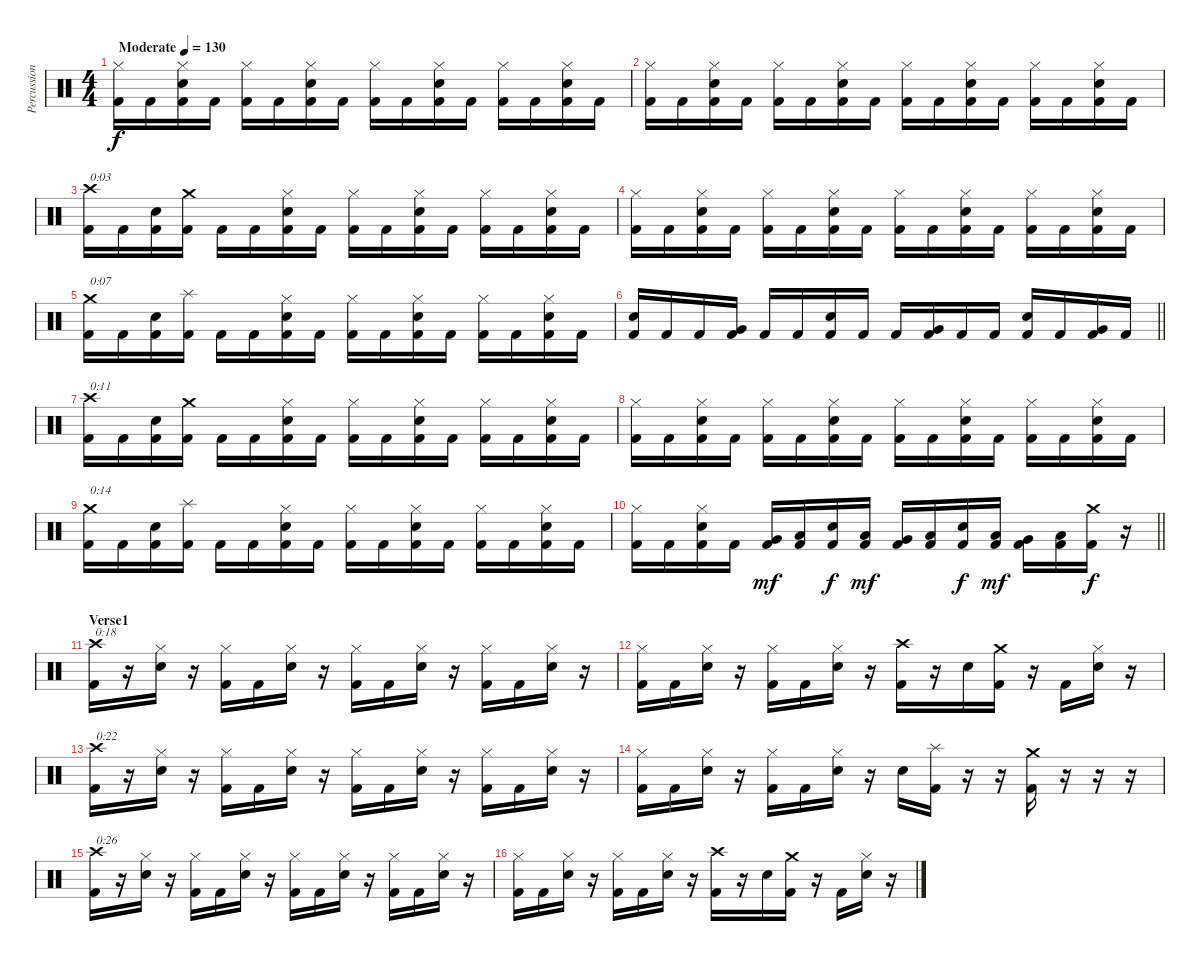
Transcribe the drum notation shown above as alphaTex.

\track ("Percussion" "Percussion") {instrument percussion}
\staff {score}
\articulation defaults
\ts (4 4)
\tempo (130 "Moderate")
\clef neutral
\ks c
("Hi-Hat (closed)" "Kick (hit) 2").16{dy f} "Kick (hit) 2".16 ("Hi-Hat (closed)" "Electric Snare (hit)" "Kick (hit) 2").16 "Kick (hit) 2".16 ("Hi-Hat (closed)" "Kick (hit) 2").16 "Kick (hit) 2".16 ("Hi-Hat (closed)" "Electric Snare (hit)" "Kick (hit) 2").16 "Kick (hit) 2".16 ("Hi-Hat (closed)" "Kick (hit) 2").16 "Kick (hit) 2".16 ("Hi-Hat (closed)" "Electric Snare (hit)" "Kick (hit) 2").16 "Kick (hit) 2".16 ("Hi-Hat (closed)" "Kick (hit) 2").16 "Kick (hit) 2".16 ("Hi-Hat (closed)" "Electric Snare (hit)" "Kick (hit) 2").16 "Kick (hit) 2".16 |
("Hi-Hat (closed)" "Kick (hit) 2").16 "Kick (hit) 2".16 ("Hi-Hat (closed)" "Electric Snare (hit)" "Kick (hit) 2").16 "Kick (hit) 2".16 ("Hi-Hat (closed)" "Kick (hit) 2").16 "Kick (hit) 2".16 ("Hi-Hat (closed)" "Electric Snare (hit)" "Kick (hit) 2").16 "Kick (hit) 2".16 ("Hi-Hat (closed)" "Kick (hit) 2").16 "Kick (hit) 2".16 ("Hi-Hat (closed)" "Electric Snare (hit)" "Kick (hit) 2").16 "Kick (hit) 2".16 ("Hi-Hat (closed)" "Kick (hit) 2").16 "Kick (hit) 2".16 ("Hi-Hat (closed)" "Electric Snare (hit)" "Kick (hit) 2").16 "Kick (hit) 2".16 |
("Crash high (hit)" "Kick (hit) 2").16{txt "0:03"} "Kick (hit) 2".16 ("Electric Snare (hit)" "Kick (hit) 2").16 ("Crash medium (hit)" "Kick (hit) 2").16 "Kick (hit) 2".16 "Kick (hit) 2".16 ("Hi-Hat (closed)" "Electric Snare (hit)" "Kick (hit) 2").16 "Kick (hit) 2".16 ("Hi-Hat (closed)" "Kick (hit) 2").16 "Kick (hit) 2".16 ("Hi-Hat (closed)" "Electric Snare (hit)" "Kick (hit) 2").16 "Kick (hit) 2".16 ("Hi-Hat (closed)" "Kick (hit) 2").16 "Kick (hit) 2".16 ("Hi-Hat (closed)" "Electric Snare (hit)" "Kick (hit) 2").16 "Kick (hit) 2".16 |
("Hi-Hat (closed)" "Kick (hit) 2").16 "Kick (hit) 2".16 ("Hi-Hat (closed)" "Electric Snare (hit)" "Kick (hit) 2").16 "Kick (hit) 2".16 ("Hi-Hat (closed)" "Kick (hit) 2").16 "Kick (hit) 2".16 ("Hi-Hat (closed)" "Electric Snare (hit)" "Kick (hit) 2").16 "Kick (hit) 2".16 ("Hi-Hat (closed)" "Kick (hit) 2").16 "Kick (hit) 2".16 ("Hi-Hat (closed)" "Electric Snare (hit)" "Kick (hit) 2").16 "Kick (hit) 2".16 ("Hi-Hat (closed)" "Kick (hit) 2").16 "Kick (hit) 2".16 ("Hi-Hat (closed)" "Electric Snare (hit)" "Kick (hit) 2").16 "Kick (hit) 2".16 |
("Crash medium (hit)" "Kick (hit) 2").16{txt "0:07"} "Kick (hit) 2".16 ("Electric Snare (hit)" "Kick (hit) 2").16 ("Splash (hit)" "Kick (hit) 2").16 "Kick (hit) 2".16 "Kick (hit) 2".16 ("Hi-Hat (closed)" "Electric Snare (hit)" "Kick (hit) 2").16 "Kick (hit) 2".16 ("Hi-Hat (closed)" "Kick (hit) 2").16 "Kick (hit) 2".16 ("Hi-Hat (closed)" "Electric Snare (hit)" "Kick (hit) 2").16 "Kick (hit) 2".16 ("Hi-Hat (closed)" "Kick (hit) 2").16 "Kick (hit) 2".16 ("Hi-Hat (closed)" "Electric Snare (hit)" "Kick (hit) 2").16 "Kick (hit) 2".16 |
\barLineRight lightlight
("Electric Snare (hit)" "Kick (hit) 2").16 "Kick (hit) 2".16 "Kick (hit) 2".16 ("Very Low Tom (hit)" "Kick (hit) 2").16 "Kick (hit) 2".16 "Kick (hit) 2".16 ("Electric Snare (hit)" "Kick (hit) 2").16 "Kick (hit) 2".16 "Kick (hit) 2".16 ("Very Low Tom (hit)" "Kick (hit) 2").16 "Kick (hit) 2".16 "Kick (hit) 2".16 ("Electric Snare (hit)" "Kick (hit) 2").16 "Kick (hit) 2".16 ("Very Low Tom (hit)" "Kick (hit) 2").16 "Kick (hit) 2".16 |
("Crash high (hit)" "Kick (hit) 2").16{txt "0:11"} "Kick (hit) 2".16 ("Electric Snare (hit)" "Kick (hit) 2").16 ("Crash medium (hit)" "Kick (hit) 2").16 "Kick (hit) 2".16 "Kick (hit) 2".16 ("Hi-Hat (closed)" "Electric Snare (hit)" "Kick (hit) 2").16 "Kick (hit) 2".16 ("Hi-Hat (closed)" "Kick (hit) 2").16 "Kick (hit) 2".16 ("Hi-Hat (closed)" "Electric Snare (hit)" "Kick (hit) 2").16 "Kick (hit) 2".16 ("Hi-Hat (closed)" "Kick (hit) 2").16 "Kick (hit) 2".16 ("Hi-Hat (closed)" "Electric Snare (hit)" "Kick (hit) 2").16 "Kick (hit) 2".16 |
("Hi-Hat (closed)" "Kick (hit) 2").16 "Kick (hit) 2".16 ("Hi-Hat (closed)" "Electric Snare (hit)" "Kick (hit) 2").16 "Kick (hit) 2".16 ("Hi-Hat (closed)" "Kick (hit) 2").16 "Kick (hit) 2".16 ("Hi-Hat (closed)" "Electric Snare (hit)" "Kick (hit) 2").16 "Kick (hit) 2".16 ("Hi-Hat (closed)" "Kick (hit) 2").16 "Kick (hit) 2".16 ("Hi-Hat (closed)" "Electric Snare (hit)" "Kick (hit) 2").16 "Kick (hit) 2".16 ("Hi-Hat (closed)" "Kick (hit) 2").16 "Kick (hit) 2".16 ("Hi-Hat (closed)" "Electric Snare (hit)" "Kick (hit) 2").16 "Kick (hit) 2".16 |
("Crash medium (hit)" "Kick (hit) 2").16{txt "0:14"} "Kick (hit) 2".16 ("Electric Snare (hit)" "Kick (hit) 2").16 ("Splash (hit)" "Kick (hit) 2").16 "Kick (hit) 2".16 "Kick (hit) 2".16 ("Hi-Hat (closed)" "Electric Snare (hit)" "Kick (hit) 2").16 "Kick (hit) 2".16 ("Hi-Hat (closed)" "Kick (hit) 2").16 "Kick (hit) 2".16 ("Hi-Hat (closed)" "Electric Snare (hit)" "Kick (hit) 2").16 "Kick (hit) 2".16 ("Hi-Hat (closed)" "Kick (hit) 2").16 "Kick (hit) 2".16 ("Hi-Hat (closed)" "Electric Snare (hit)" "Kick (hit) 2").16 "Kick (hit) 2".16 |
\barLineRight lightlight
("Hi-Hat (closed)" "Kick (hit) 2").16 "Kick (hit) 2".16 ("Hi-Hat (closed)" "Electric Snare (hit)" "Kick (hit) 2").16 "Kick (hit) 2".16 ("Very Low Tom (hit)" "Kick (hit) 2").16{dy mf} ("Low Floor Tom (hit)" "Kick (hit) 2").16 ("Electric Snare (hit)" "Kick (hit) 2").16{dy f} ("Low Floor Tom (hit)" "Kick (hit) 2").16{dy mf} ("Very Low Tom (hit)" "Kick (hit) 2").16 ("Low Floor Tom (hit)" "Kick (hit) 2").16 ("Electric Snare (hit)" "Kick (hit) 2").16{dy f} ("Low Floor Tom (hit)" "Kick (hit) 2").16{dy mf} ("Very Low Tom (hit)" "Kick (hit) 2").16 ("Low Floor Tom (hit)" "Kick (hit) 2").16 ("Crash medium (hit)" "Kick (hit) 2").16{dy f} r.16 |
\section ("" "Verse1")
("Crash high (hit)" "Kick (hit) 2").16{txt "0:18"} r.16 ("Hi-Hat (closed)" "Electric Snare (hit)").16 r.16 ("Hi-Hat (closed)" "Kick (hit) 2").16 "Kick (hit) 2".16 ("Hi-Hat (closed)" "Electric Snare (hit)").16 r.16 ("Hi-Hat (closed)" "Kick (hit) 2").16 "Kick (hit) 2".16 ("Hi-Hat (closed)" "Electric Snare (hit)").16 r.16 ("Hi-Hat (closed)" "Kick (hit) 2").16 "Kick (hit) 2".16 ("Hi-Hat (closed)" "Electric Snare (hit)").16 r.16 |
("Hi-Hat (closed)" "Kick (hit) 2").16 "Kick (hit) 2".16 ("Hi-Hat (closed)" "Electric Snare (hit)").16 r.16 ("Hi-Hat (closed)" "Kick (hit) 2").16 "Kick (hit) 2".16 ("Hi-Hat (closed)" "Electric Snare (hit)").16 r.16 ("Crash high (hit)" "Kick (hit) 2").16 r.16 "Electric Snare (hit)".16 ("Crash medium (hit)" "Kick (hit) 2").16 r.16 "Kick (hit) 2".16 ("Hi-Hat (closed)" "Electric Snare (hit)").16 r.16 |
("Crash high (hit)" "Kick (hit) 2").16{txt "0:22"} r.16 ("Hi-Hat (closed)" "Electric Snare (hit)").16 r.16 ("Hi-Hat (closed)" "Kick (hit) 2").16 "Kick (hit) 2".16 ("Hi-Hat (closed)" "Electric Snare (hit)").16 r.16 ("Hi-Hat (closed)" "Kick (hit) 2").16 "Kick (hit) 2".16 ("Hi-Hat (closed)" "Electric Snare (hit)").16 r.16 ("Hi-Hat (closed)" "Kick (hit) 2").16 "Kick (hit) 2".16 ("Hi-Hat (closed)" "Electric Snare (hit)").16 r.16 |
("Hi-Hat (closed)" "Kick (hit) 2").16 "Kick (hit) 2".16 ("Hi-Hat (closed)" "Electric Snare (hit)").16 r.16 ("Hi-Hat (closed)" "Kick (hit) 2").16 "Kick (hit) 2".16 ("Hi-Hat (closed)" "Electric Snare (hit)").16 r.16 "Electric Snare (hit)".16 ("Splash (hit)" "Kick (hit) 2").16 r.16 r.16 ("Crash medium (hit)" "Kick (hit) 2").16 r.16 r.16 r.16 |
("Crash high (hit)" "Kick (hit) 2").16{txt "0:26"} r.16 ("Hi-Hat (closed)" "Electric Snare (hit)").16 r.16 ("Hi-Hat (closed)" "Kick (hit) 2").16 "Kick (hit) 2".16 ("Hi-Hat (closed)" "Electric Snare (hit)").16 r.16 ("Hi-Hat (closed)" "Kick (hit) 2").16 "Kick (hit) 2".16 ("Hi-Hat (closed)" "Electric Snare (hit)").16 r.16 ("Hi-Hat (closed)" "Kick (hit) 2").16 "Kick (hit) 2".16 ("Hi-Hat (closed)" "Electric Snare (hit)").16 r.16 |
("Hi-Hat (closed)" "Kick (hit) 2").16 "Kick (hit) 2".16 ("Hi-Hat (closed)" "Electric Snare (hit)").16 r.16 ("Hi-Hat (closed)" "Kick (hit) 2").16 "Kick (hit) 2".16 ("Hi-Hat (closed)" "Electric Snare (hit)").16 r.16 ("Crash high (hit)" "Kick (hit) 2").16 r.16 "Electric Snare (hit)".16 ("Crash medium (hit)" "Kick (hit) 2").16 r.16 "Kick (hit) 2".16 ("Hi-Hat (closed)" "Electric Snare (hit)").16 r.16
